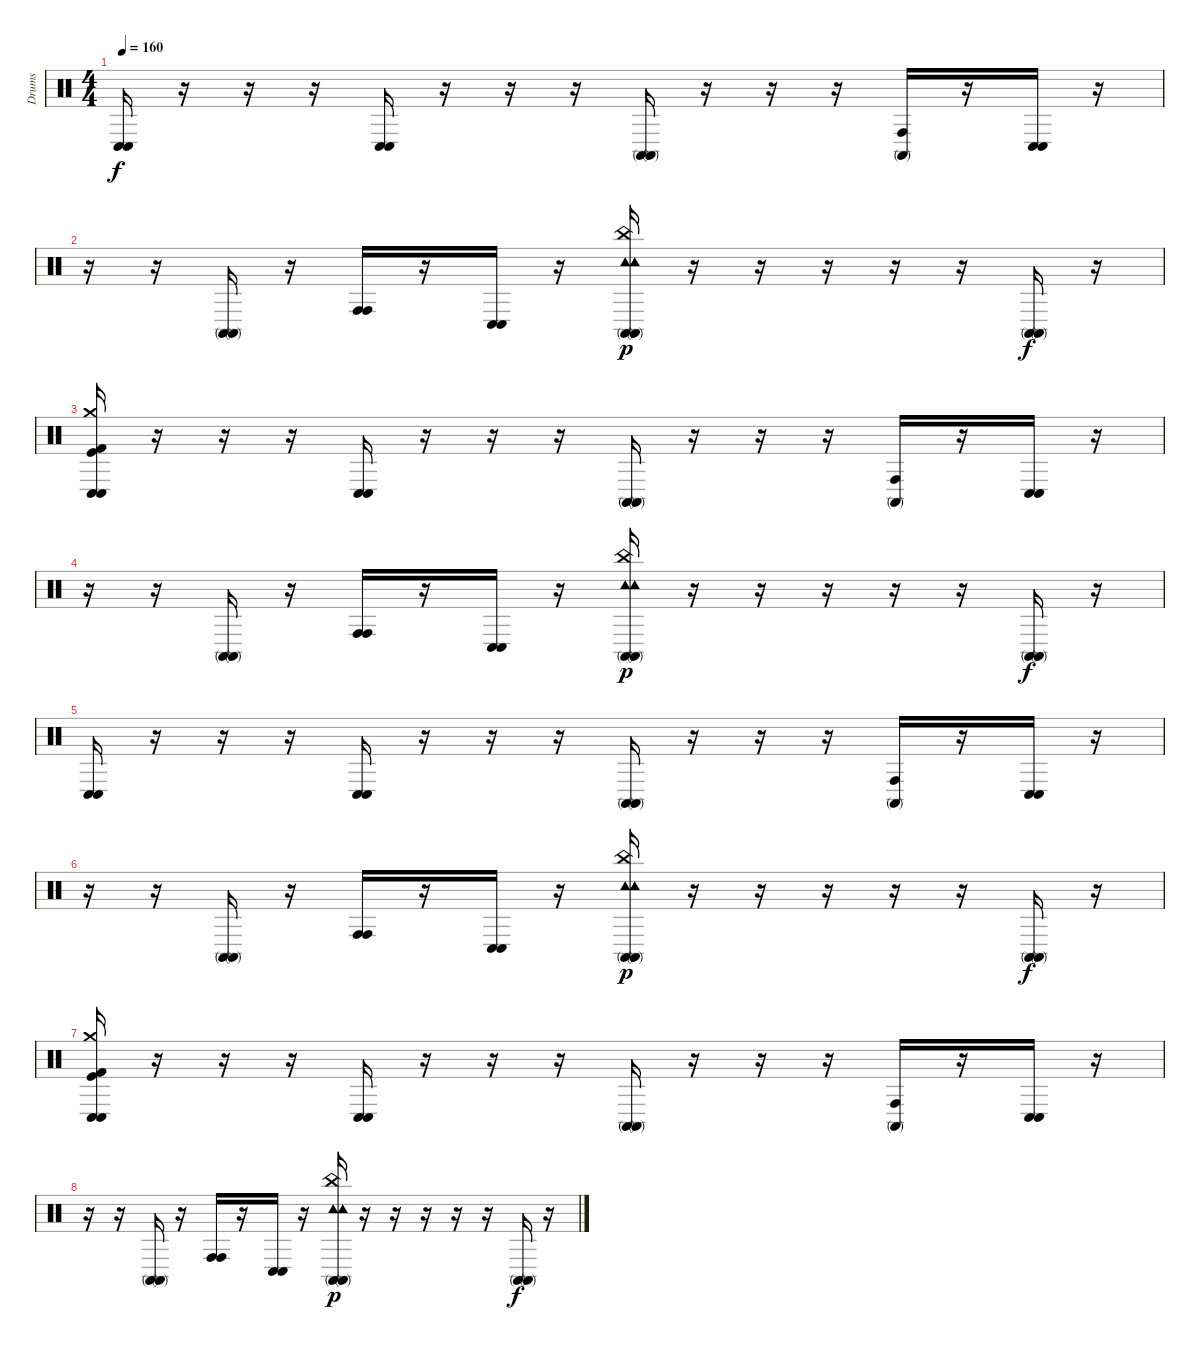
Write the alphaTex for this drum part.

\track ("Drums" "Drums") {instrument percussion}
\staff {score}
\articulation defaults
\ts (4 4)
\tempo 160
\clef neutral
\ks c
("Conga low (hit)" "Conga low (hit)").16{dy f} r.16 r.16 r.16 ("Conga low (hit)" "Conga low (hit)").16 r.16 r.16 r.16 ("Conga high (mute)" "Conga high (mute)").16 r.16 r.16 r.16 ("Conga high (hit)" "Conga high (mute)").16 r.16 ("Conga low (hit)" "Conga low (hit)").16 r.16 |
r.16 r.16 ("Conga high (mute)" "Conga high (mute)").16 r.16 ("Conga high (hit)" "Conga high (hit)").16 r.16 ("Conga low (hit)" "Conga low (hit)").16 r.16 ("Conga high (mute)" "Conga high (mute)" "Tambourine (hit)" "Tambourine (hit)" "China (hit)").16{dy p} r.16 r.16 r.16 r.16 r.16 ("Conga high (mute)" "Conga high (mute)").16{dy f} r.16 |
("Conga low (hit)" "Conga low (hit)" "Crash medium (hit)" "Kick (hit)" "Kick (hit) 2").16 r.16 r.16 r.16 ("Conga low (hit)" "Conga low (hit)").16 r.16 r.16 r.16 ("Conga high (mute)" "Conga high (mute)").16 r.16 r.16 r.16 ("Conga high (hit)" "Conga high (mute)").16 r.16 ("Conga low (hit)" "Conga low (hit)").16 r.16 |
r.16 r.16 ("Conga high (mute)" "Conga high (mute)").16 r.16 ("Conga high (hit)" "Conga high (hit)").16 r.16 ("Conga low (hit)" "Conga low (hit)").16 r.16 ("Conga high (mute)" "Conga high (mute)" "Tambourine (hit)" "Tambourine (hit)" "China (hit)").16{dy p} r.16 r.16 r.16 r.16 r.16 ("Conga high (mute)" "Conga high (mute)").16{dy f} r.16 |
("Conga low (hit)" "Conga low (hit)").16 r.16 r.16 r.16 ("Conga low (hit)" "Conga low (hit)").16 r.16 r.16 r.16 ("Conga high (mute)" "Conga high (mute)").16 r.16 r.16 r.16 ("Conga high (hit)" "Conga high (mute)").16 r.16 ("Conga low (hit)" "Conga low (hit)").16 r.16 |
r.16 r.16 ("Conga high (mute)" "Conga high (mute)").16 r.16 ("Conga high (hit)" "Conga high (hit)").16 r.16 ("Conga low (hit)" "Conga low (hit)").16 r.16 ("Conga high (mute)" "Conga high (mute)" "Tambourine (hit)" "Tambourine (hit)" "China (hit)").16{dy p} r.16 r.16 r.16 r.16 r.16 ("Conga high (mute)" "Conga high (mute)").16{dy f} r.16 |
("Conga low (hit)" "Conga low (hit)" "Crash medium (hit)" "Kick (hit)" "Kick (hit) 2").16 r.16 r.16 r.16 ("Conga low (hit)" "Conga low (hit)").16 r.16 r.16 r.16 ("Conga high (mute)" "Conga high (mute)").16 r.16 r.16 r.16 ("Conga high (hit)" "Conga high (mute)").16 r.16 ("Conga low (hit)" "Conga low (hit)").16 r.16 |
r.16 r.16 ("Conga high (mute)" "Conga high (mute)").16 r.16 ("Conga high (hit)" "Conga high (hit)").16 r.16 ("Conga low (hit)" "Conga low (hit)").16 r.16 ("Conga high (mute)" "Conga high (mute)" "Tambourine (hit)" "Tambourine (hit)" "China (hit)").16{dy p} r.16 r.16 r.16 r.16 r.16 ("Conga high (mute)" "Conga high (mute)").16{dy f} r.16
